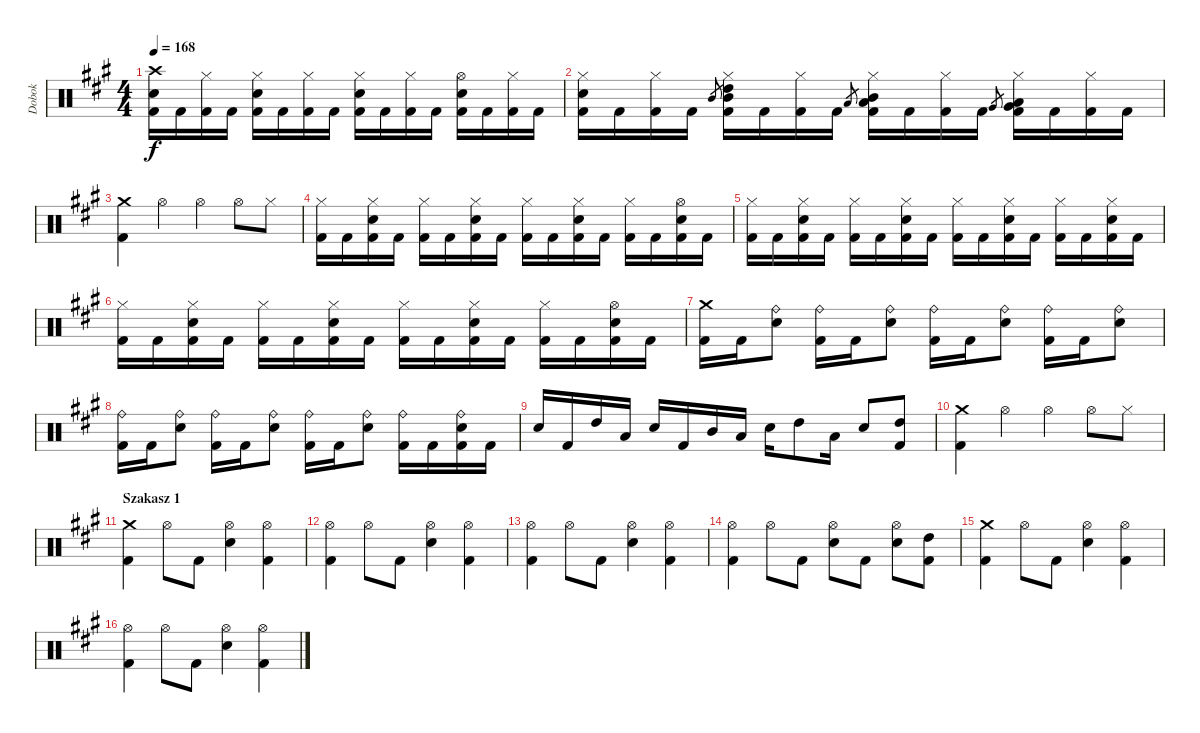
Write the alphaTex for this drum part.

\track ("Dobok" "Dobok") {instrument percussion}
\staff {score}
\articulation defaults
\ts (4 4)
\tempo 168
\clef neutral
\ks f#minor
("Crash high (hit)" "Snare (hit) 2" "Kick (hit) 2").16{dy f} "Kick (hit) 2".16 ("Hi-Hat (closed)" "Kick (hit) 2").16 "Kick (hit) 2".16 ("Hi-Hat (closed)" "Snare (hit) 2" "Kick (hit) 2").16 "Kick (hit) 2".16 ("Hi-Hat (closed)" "Kick (hit) 2").16 "Kick (hit) 2".16 ("Hi-Hat (closed)" "Snare (hit) 2" "Kick (hit) 2").16 "Kick (hit) 2".16 ("Hi-Hat (closed)" "Kick (hit) 2").16 "Kick (hit) 2".16 ("Hi-Hat (open)" "Snare (hit) 2" "Kick (hit) 2").16 "Kick (hit) 2".16 ("Hi-Hat (closed)" "Kick (hit) 2").16 "Kick (hit) 2".16 |
("Hi-Hat (closed)" "Snare (hit) 2" "Kick (hit) 2").16 "Kick (hit) 2".16 ("Hi-Hat (closed)" "Kick (hit) 2").16 "Kick (hit) 2".16 "Mid Tom (hit)".8{gr} ("Hi-Hat (closed)" "High Tom (hit)" "Mid Tom (hit)" "Kick (hit) 2").16 "Kick (hit) 2".16 ("Hi-Hat (closed)" "Kick (hit) 2").16 "Kick (hit) 2".16 "Low Tom (hit)".8{gr} ("Hi-Hat (closed)" "Mid Tom (hit)" "Low Tom (hit)" "Kick (hit) 2").16 "Kick (hit) 2".16 ("Hi-Hat (closed)" "Kick (hit) 2").16 "Kick (hit) 2".16 "Very Low Tom (hit)".8{gr} ("Hi-Hat (closed)" "Low Tom (hit)" "Very Low Tom (hit)" "Kick (hit) 2").16 "Kick (hit) 2".16 ("Hi-Hat (closed)" "Kick (hit) 2").16 "Kick (hit) 2".16 |
("Crash medium (hit)" "Kick (hit) 2").4 "Hi-Hat (open)".4 "Hi-Hat (open)".4 "Hi-Hat (open)".8 "Hi-Hat (closed)".8 |
("Hi-Hat (closed)" "Kick (hit) 2").16 "Kick (hit) 2".16 ("Hi-Hat (closed)" "Snare (hit) 2" "Kick (hit) 2").16 "Kick (hit) 2".16 ("Hi-Hat (closed)" "Kick (hit) 2").16 "Kick (hit) 2".16 ("Hi-Hat (closed)" "Snare (hit) 2" "Kick (hit) 2").16 "Kick (hit) 2".16 ("Hi-Hat (closed)" "Kick (hit) 2").16 "Kick (hit) 2".16 ("Hi-Hat (closed)" "Snare (hit) 2" "Kick (hit) 2").16 "Kick (hit) 2".16 ("Hi-Hat (closed)" "Kick (hit) 2").16 "Kick (hit) 2".16 ("Hi-Hat (open)" "Snare (hit) 2" "Kick (hit) 2").16 "Kick (hit) 2".16 |
("Hi-Hat (closed)" "Kick (hit) 2").16 "Kick (hit) 2".16 ("Hi-Hat (closed)" "Snare (hit) 2" "Kick (hit) 2").16 "Kick (hit) 2".16 ("Hi-Hat (closed)" "Kick (hit) 2").16 "Kick (hit) 2".16 ("Hi-Hat (closed)" "Snare (hit) 2" "Kick (hit) 2").16 "Kick (hit) 2".16 ("Hi-Hat (closed)" "Kick (hit) 2").16 "Kick (hit) 2".16 ("Hi-Hat (closed)" "Snare (hit) 2" "Kick (hit) 2").16 "Kick (hit) 2".16 ("Hi-Hat (closed)" "Kick (hit) 2").16 "Kick (hit) 2".16 ("Hi-Hat (closed)" "Snare (hit) 2" "Kick (hit) 2").16 "Kick (hit) 2".16 |
("Hi-Hat (closed)" "Kick (hit) 2").16 "Kick (hit) 2".16 ("Hi-Hat (closed)" "Snare (hit) 2" "Kick (hit) 2").16 "Kick (hit) 2".16 ("Hi-Hat (closed)" "Kick (hit) 2").16 "Kick (hit) 2".16 ("Hi-Hat (closed)" "Snare (hit) 2" "Kick (hit) 2").16 "Kick (hit) 2".16 ("Hi-Hat (closed)" "Kick (hit) 2").16 "Kick (hit) 2".16 ("Hi-Hat (closed)" "Snare (hit) 2" "Kick (hit) 2").16 "Kick (hit) 2".16 ("Hi-Hat (closed)" "Kick (hit) 2").16 "Kick (hit) 2".16 ("Hi-Hat (open)" "Snare (hit) 2" "Kick (hit) 2").16 "Kick (hit) 2".16 |
("Crash medium (hit)" "Kick (hit) 2").16 "Kick (hit) 2".16 ("Ride (bell)" "Snare (hit) 2").8 ("Ride (bell)" "Kick (hit) 2").16 "Kick (hit) 2".16 ("Ride (bell)" "Snare (hit) 2").8 ("Ride (bell)" "Kick (hit) 2").16 "Kick (hit) 2".16 ("Ride (bell)" "Snare (hit) 2").8 ("Ride (bell)" "Kick (hit) 2").16 "Kick (hit) 2".16 ("Ride (bell)" "Snare (hit) 2").8 |
("Ride (bell)" "Kick (hit) 2").16 "Kick (hit) 2".16 ("Ride (bell)" "Snare (hit) 2").8 ("Ride (bell)" "Kick (hit) 2").16 "Kick (hit) 2".16 ("Ride (bell)" "Snare (hit) 2").8 ("Ride (bell)" "Kick (hit) 2").16 "Kick (hit) 2".16 ("Ride (bell)" "Snare (hit) 2").8 ("Ride (bell)" "Kick (hit) 2").16 "Kick (hit) 2".16 ("Ride (bell)" "Snare (hit) 2" "Kick (hit) 2").16 "Kick (hit) 2".16 |
"Snare (hit) 2".16 "Kick (hit) 2".16 "High Tom (hit)".16 "Low Tom (hit)".16 "Snare (hit) 2".16 "Kick (hit) 2".16 "Mid Tom (hit)".16 "Low Tom (hit)".16 "Snare (hit) 2".16 "High Tom (hit)".8 "Low Tom (hit)".16 "Snare (hit) 2".8 ("High Tom (hit)" "Kick (hit) 2").8 |
("Crash medium (hit)" "Kick (hit) 2").4 "Hi-Hat (open)".4 "Hi-Hat (open)".4 "Hi-Hat (open)".8 "Hi-Hat (closed)".8 |
\section ("" "Szakasz 1")
("Crash medium (hit)" "Kick (hit) 2").4 "Hi-Hat (open)".8 "Kick (hit) 2".8 ("Hi-Hat (open)" "Snare (hit) 2").4 ("Hi-Hat (open)" "Kick (hit) 2").4 |
("Hi-Hat (open)" "Kick (hit) 2").4 "Hi-Hat (open)".8 "Kick (hit) 2".8 ("Hi-Hat (open)" "Snare (hit) 2").4 ("Hi-Hat (open)" "Kick (hit) 2").4 |
("Hi-Hat (open)" "Kick (hit) 2").4 "Hi-Hat (open)".8 "Kick (hit) 2".8 ("Hi-Hat (open)" "Snare (hit) 2").4 ("Hi-Hat (open)" "Kick (hit) 2").4 |
("Hi-Hat (open)" "Kick (hit) 2").4 "Hi-Hat (open)".8 "Kick (hit) 2".8 ("Hi-Hat (open)" "Snare (hit) 2").8 "Kick (hit) 2".8 ("Hi-Hat (open)" "Snare (hit) 2").8 ("High Tom (hit)" "Kick (hit) 2").8 |
("Crash medium (hit)" "Kick (hit) 2").4 "Hi-Hat (open)".8 "Kick (hit) 2".8 ("Hi-Hat (open)" "Snare (hit) 2").4 ("Hi-Hat (open)" "Kick (hit) 2").4 |
("Hi-Hat (open)" "Kick (hit) 2").4 "Hi-Hat (open)".8 "Kick (hit) 2".8 ("Hi-Hat (open)" "Snare (hit) 2").4 ("Hi-Hat (open)" "Kick (hit) 2").4
